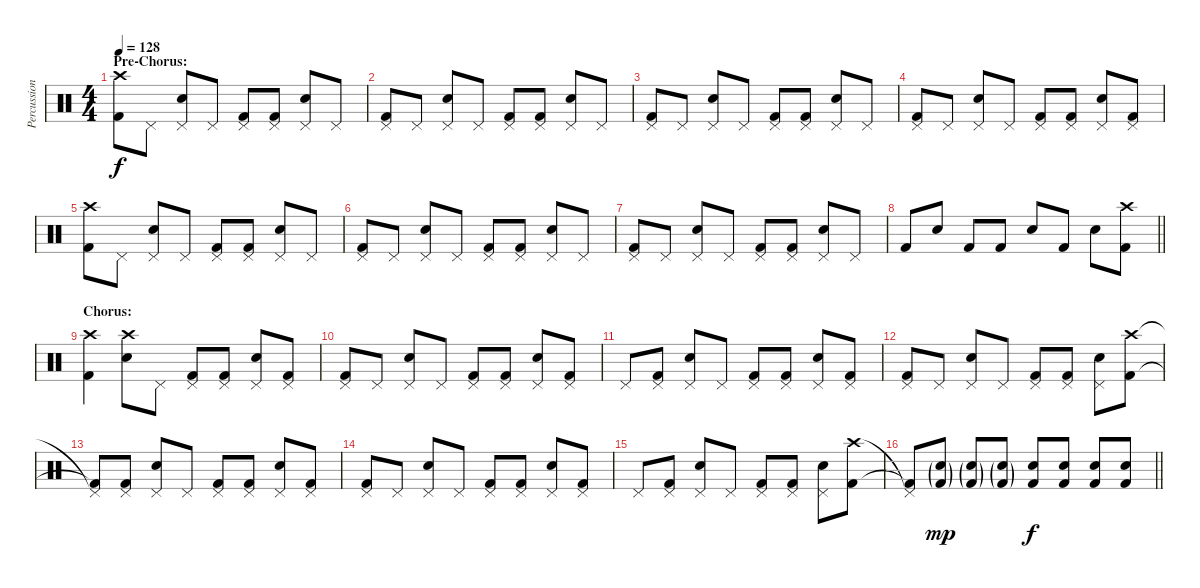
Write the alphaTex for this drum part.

\track ("Percussion" "Percussion") {instrument percussion}
\staff {score}
\articulation defaults
\ts (4 4)
\section ("" "Pre-Chorus:")
\tempo 128
\clef neutral
\ks c
("Crash high (hit)" "Kick (hit) 2").8{dy f} "Pedal Hi-Hat (hit)".8 ("Pedal Hi-Hat (hit)" "Electric Snare (hit)").8 "Pedal Hi-Hat (hit)".8 ("Pedal Hi-Hat (hit)" "Kick (hit) 2").8 ("Pedal Hi-Hat (hit)" "Kick (hit) 2").8 ("Pedal Hi-Hat (hit)" "Electric Snare (hit)").8 "Pedal Hi-Hat (hit)".8 |
("Pedal Hi-Hat (hit)" "Kick (hit) 2").8 "Pedal Hi-Hat (hit)".8 ("Pedal Hi-Hat (hit)" "Electric Snare (hit)").8 "Pedal Hi-Hat (hit)".8 ("Pedal Hi-Hat (hit)" "Kick (hit) 2").8 ("Pedal Hi-Hat (hit)" "Kick (hit) 2").8 ("Pedal Hi-Hat (hit)" "Electric Snare (hit)").8 "Pedal Hi-Hat (hit)".8 |
("Pedal Hi-Hat (hit)" "Kick (hit) 2").8 "Pedal Hi-Hat (hit)".8 ("Pedal Hi-Hat (hit)" "Electric Snare (hit)").8 "Pedal Hi-Hat (hit)".8 ("Pedal Hi-Hat (hit)" "Kick (hit) 2").8 ("Pedal Hi-Hat (hit)" "Kick (hit) 2").8 ("Pedal Hi-Hat (hit)" "Electric Snare (hit)").8 "Pedal Hi-Hat (hit)".8 |
("Pedal Hi-Hat (hit)" "Kick (hit) 2").8 "Pedal Hi-Hat (hit)".8 ("Pedal Hi-Hat (hit)" "Electric Snare (hit)").8 "Pedal Hi-Hat (hit)".8 ("Pedal Hi-Hat (hit)" "Kick (hit) 2").8 ("Pedal Hi-Hat (hit)" "Kick (hit) 2").8 ("Pedal Hi-Hat (hit)" "Electric Snare (hit)").8 ("Pedal Hi-Hat (hit)" "Kick (hit) 2").8 |
("Crash high (hit)" "Kick (hit) 2").8 "Pedal Hi-Hat (hit)".8 ("Pedal Hi-Hat (hit)" "Electric Snare (hit)").8 "Pedal Hi-Hat (hit)".8 ("Pedal Hi-Hat (hit)" "Kick (hit) 2").8 ("Pedal Hi-Hat (hit)" "Kick (hit) 2").8 ("Pedal Hi-Hat (hit)" "Electric Snare (hit)").8 "Pedal Hi-Hat (hit)".8 |
("Pedal Hi-Hat (hit)" "Kick (hit) 2").8 "Pedal Hi-Hat (hit)".8 ("Pedal Hi-Hat (hit)" "Electric Snare (hit)").8 "Pedal Hi-Hat (hit)".8 ("Pedal Hi-Hat (hit)" "Kick (hit) 2").8 ("Pedal Hi-Hat (hit)" "Kick (hit) 2").8 ("Pedal Hi-Hat (hit)" "Electric Snare (hit)").8 "Pedal Hi-Hat (hit)".8 |
("Pedal Hi-Hat (hit)" "Kick (hit) 2").8 "Pedal Hi-Hat (hit)".8 ("Pedal Hi-Hat (hit)" "Electric Snare (hit)").8 "Pedal Hi-Hat (hit)".8 ("Pedal Hi-Hat (hit)" "Kick (hit) 2").8 ("Pedal Hi-Hat (hit)" "Kick (hit) 2").8 ("Pedal Hi-Hat (hit)" "Electric Snare (hit)").8 "Pedal Hi-Hat (hit)".8 |
\barLineRight lightlight "Kick (hit) 2".8 "Electric Snare (hit)".8 "Kick (hit) 2".8 "Kick (hit) 2".8 "Electric Snare (hit)".8 "Kick (hit) 2".8 "Electric Snare (hit)".8
("Crash high (hit)" "Kick (hit) 2").8 |
\section ("" "Chorus:")
("Crash high (hit)" "Kick (hit) 2").4 ("Crash high (hit)" "Electric Snare (hit)").8 "Pedal Hi-Hat (hit)".8 ("Pedal Hi-Hat (hit)" "Kick (hit) 2").8 ("Pedal Hi-Hat (hit)" "Kick (hit) 2").8 ("Pedal Hi-Hat (hit)" "Electric Snare (hit)").8 ("Pedal Hi-Hat (hit)" "Kick (hit) 2").8 |
("Pedal Hi-Hat (hit)" "Kick (hit) 2").8 "Pedal Hi-Hat (hit)".8 ("Pedal Hi-Hat (hit)" "Electric Snare (hit)").8 "Pedal Hi-Hat (hit)".8 ("Pedal Hi-Hat (hit)" "Kick (hit) 2").8 ("Pedal Hi-Hat (hit)" "Kick (hit) 2").8 ("Pedal Hi-Hat (hit)" "Electric Snare (hit)").8 ("Pedal Hi-Hat (hit)" "Kick (hit) 2").8 |
"Pedal Hi-Hat (hit)".8 ("Pedal Hi-Hat (hit)" "Kick (hit) 2").8 ("Pedal Hi-Hat (hit)" "Electric Snare (hit)").8 "Pedal Hi-Hat (hit)".8 ("Pedal Hi-Hat (hit)" "Kick (hit) 2").8 ("Pedal Hi-Hat (hit)" "Kick (hit) 2").8 ("Pedal Hi-Hat (hit)" "Electric Snare (hit)").8 ("Pedal Hi-Hat (hit)" "Kick (hit) 2").8 |
("Pedal Hi-Hat (hit)" "Kick (hit) 2").8 "Pedal Hi-Hat (hit)".8 ("Pedal Hi-Hat (hit)" "Electric Snare (hit)").8 "Pedal Hi-Hat (hit)".8 ("Pedal Hi-Hat (hit)" "Kick (hit) 2").8 ("Pedal Hi-Hat (hit)" "Kick (hit) 2").8 ("Pedal Hi-Hat (hit)" "Electric Snare (hit)").8 ("Crash high (hit)" "Kick (hit) 2").8 |
("Pedal Hi-Hat (hit)"{t} "Kick (hit) 2"{t}).8 ("Pedal Hi-Hat (hit)" "Kick (hit) 2").8 ("Pedal Hi-Hat (hit)" "Electric Snare (hit)").8 "Pedal Hi-Hat (hit)".8 ("Pedal Hi-Hat (hit)" "Kick (hit) 2").8 ("Pedal Hi-Hat (hit)" "Kick (hit) 2").8 ("Pedal Hi-Hat (hit)" "Electric Snare (hit)").8 ("Pedal Hi-Hat (hit)" "Kick (hit) 2").8 |
("Pedal Hi-Hat (hit)" "Kick (hit) 2").8 "Pedal Hi-Hat (hit)".8 ("Pedal Hi-Hat (hit)" "Electric Snare (hit)").8 "Pedal Hi-Hat (hit)".8 ("Pedal Hi-Hat (hit)" "Kick (hit) 2").8 ("Pedal Hi-Hat (hit)" "Kick (hit) 2").8 ("Pedal Hi-Hat (hit)" "Electric Snare (hit)").8 ("Pedal Hi-Hat (hit)" "Kick (hit) 2").8 |
"Pedal Hi-Hat (hit)".8 ("Pedal Hi-Hat (hit)" "Kick (hit) 2").8 ("Pedal Hi-Hat (hit)" "Electric Snare (hit)").8 "Pedal Hi-Hat (hit)".8 ("Pedal Hi-Hat (hit)" "Kick (hit) 2").8 ("Pedal Hi-Hat (hit)" "Kick (hit) 2").8 ("Pedal Hi-Hat (hit)" "Electric Snare (hit)").8 ("Crash high (hit)" "Kick (hit) 2").8 |
\barLineRight lightlight
("Pedal Hi-Hat (hit)"{t} "Kick (hit) 2"{t}).8 ("Electric Snare (hit)"{g} "Kick (hit) 2"{g}).8{dy mp} ("Electric Snare (hit)"{g} "Kick (hit) 2"{g}).8 ("Electric Snare (hit)"{g} "Kick (hit) 2"{g}).8 ("Electric Snare (hit)" "Kick (hit) 2").8{dy f} ("Electric Snare (hit)" "Kick (hit) 2").8 ("Electric Snare (hit)" "Kick (hit) 2").8 ("Electric Snare (hit)" "Kick (hit) 2").8
